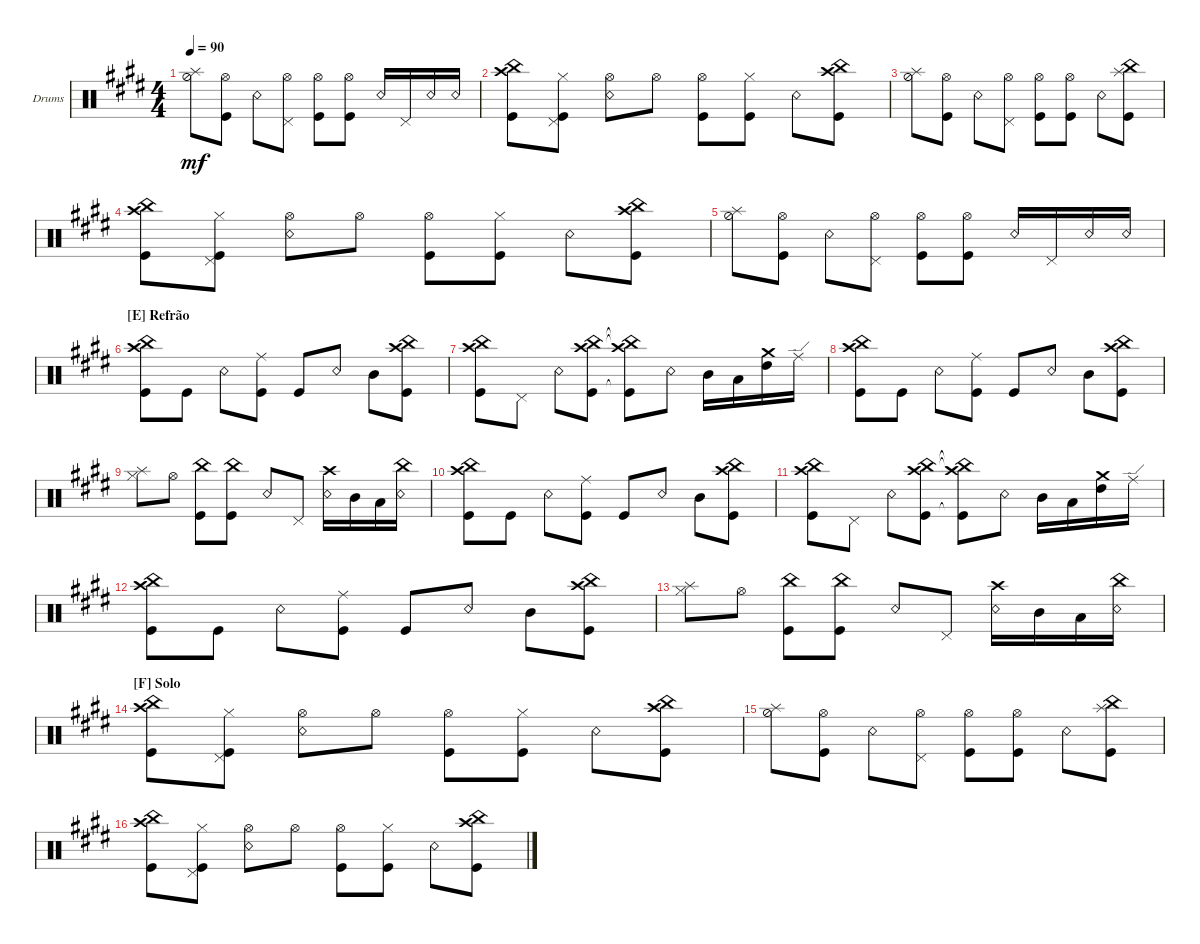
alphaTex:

\defaultSystemsLayout 4
\bracketExtendMode groupsimilarinstruments
\firstSystemTrackNameOrientation horizontal
\otherSystemsTrackNameOrientation horizontal
\track ("Drum" "Drums") {multiBarRest instrument percussion}
\staff {score}
\articulation defaults
\ts (4 4)
\tempo 90
\clef neutral
\ks e
("Hi-Hat (half)" "Splash (hit)").8{dy mf} ("Kick (hit)" "Hi-Hat (open)").8 "Snare (rim shot)".8 ("Pedal Hi-Hat (hit)" "Hi-Hat (open)").8 ("Kick (hit)" "Hi-Hat (open)").8 ("Kick (hit)" "Hi-Hat (open)").8 "Snare (rim shot)".16 "Pedal Hi-Hat (hit)".16 "Snare (rim shot)".16 "Snare (rim shot)".16 |
("Kick (hit)" "China (hit)" "Crash high (hit)").8 ("Kick (hit)" "Pedal Hi-Hat (hit)" "Hi-Hat (closed)").8 ("Snare (rim shot)" "Hi-Hat (open)").8 "Hi-Hat (open)".8 ("Kick (hit)" "Hi-Hat (open)").8 ("Kick (hit)" "Hi-Hat (closed)").8 "Snare (rim shot)".8 ("Crash high (hit)" "Kick (hit)" "China (hit)").8 |
("Hi-Hat (half)" "Splash (hit)").8 ("Kick (hit)" "Hi-Hat (open)").8 "Snare (rim shot)".8 ("Pedal Hi-Hat (hit)" "Hi-Hat (open)").8 ("Kick (hit)" "Hi-Hat (open)").8 ("Kick (hit)" "Hi-Hat (open)").8 "Snare (rim shot)".8 ("China (hit)" "Kick (hit)" "Splash (hit)").8 |
("Kick (hit)" "China (hit)" "Crash high (hit)").8 ("Kick (hit)" "Pedal Hi-Hat (hit)" "Hi-Hat (closed)").8 ("Snare (rim shot)" "Hi-Hat (open)").8 "Hi-Hat (open)".8 ("Kick (hit)" "Hi-Hat (open)").8 ("Kick (hit)" "Hi-Hat (closed)").8 "Snare (rim shot)".8 ("Crash high (hit)" "Kick (hit)" "China (hit)").8 |
("Hi-Hat (half)" "Splash (hit)").8 ("Kick (hit)" "Hi-Hat (open)").8 "Snare (rim shot)".8 ("Pedal Hi-Hat (hit)" "Hi-Hat (open)").8 ("Kick (hit)" "Hi-Hat (open)").8 ("Kick (hit)" "Hi-Hat (open)").8 "Snare (rim shot)".16 "Pedal Hi-Hat (hit)".16 "Snare (rim shot)".16 "Snare (rim shot)".16 |
\section ("E" "Refrão")
("Kick (hit)" "Crash high (hit)" "China (hit)").8 "Kick (hit)".8 "Snare (rim shot)".8 ("Kick (hit)" "Ride (middle)").8 "Kick (hit)".8 "Snare (rim shot)".8 "Mid Tom (hit)".8 ("Crash high (hit)" "China (hit)" "Kick (hit)").8 |
("Kick (hit)" "Crash high (hit)" "China (hit)").8 "Pedal Hi-Hat (hit)".8 "Snare (rim shot)".8 ("Kick (hit)" "Crash high (hit)" "China (hit)").8 ("Kick (hit)"{t} "Crash high (hit)"{t} "China (hit)"{t}).8 "Snare (rim shot)".8 "Mid Tom (hit)".16 "Low Tom (hit)".16 ("High Tom (hit)" "Crash medium (hit)").16 "Ride (edge)".16 |
("Kick (hit)" "Crash high (hit)" "China (hit)").8 "Kick (hit)".8 "Snare (rim shot)".8 ("Kick (hit)" "Ride (middle)").8 "Kick (hit)".8 "Snare (rim shot)".8 "Mid Tom (hit)".8 ("Crash high (hit)" "China (hit)" "Kick (hit)").8 |
("Hi-Hat (closed)" "Splash (hit)").8 "Hi-Hat (open)".8 ("Kick (hit)" "China (hit)").8 ("Kick (hit)" "China (hit)").8 "Snare (rim shot)".8 "Pedal Hi-Hat (hit)".8 ("Snare (rim shot)" "Crash high (hit)").16 "Mid Tom (hit)".16 "Low Tom (hit)".16 ("Snare (rim shot)" "China (hit)").16 |
("Kick (hit)" "Crash high (hit)" "China (hit)").8 "Kick (hit)".8 "Snare (rim shot)".8 ("Kick (hit)" "Ride (middle)").8 "Kick (hit)".8 "Snare (rim shot)".8 "Mid Tom (hit)".8 ("Crash high (hit)" "China (hit)" "Kick (hit)").8 |
("Kick (hit)" "Crash high (hit)" "China (hit)").8 "Pedal Hi-Hat (hit)".8 "Snare (rim shot)".8 ("Kick (hit)" "Crash high (hit)" "China (hit)").8 ("Kick (hit)"{t} "Crash high (hit)"{t} "China (hit)"{t}).8 "Snare (rim shot)".8 "Mid Tom (hit)".16 "Low Tom (hit)".16 ("High Tom (hit)" "Crash medium (hit)").16 "Ride (edge)".16 |
("Kick (hit)" "Crash high (hit)" "China (hit)").8 "Kick (hit)".8 "Snare (rim shot)".8 ("Kick (hit)" "Ride (middle)").8 "Kick (hit)".8 "Snare (rim shot)".8 "Mid Tom (hit)".8 ("Crash high (hit)" "China (hit)" "Kick (hit)").8 |
("Hi-Hat (closed)" "Splash (hit)").8 "Hi-Hat (open)".8 ("Kick (hit)" "China (hit)").8 ("Kick (hit)" "China (hit)").8 "Snare (rim shot)".8 "Pedal Hi-Hat (hit)".8 ("Snare (rim shot)" "Crash high (hit)").16 "Mid Tom (hit)".16 "Low Tom (hit)".16 ("Snare (rim shot)" "China (hit)").16 |
\section ("F" "Solo")
("Kick (hit)" "China (hit)" "Crash high (hit)").8 ("Kick (hit)" "Pedal Hi-Hat (hit)" "Hi-Hat (closed)").8 ("Snare (rim shot)" "Hi-Hat (open)").8 "Hi-Hat (open)".8 ("Kick (hit)" "Hi-Hat (open)").8 ("Kick (hit)" "Hi-Hat (closed)").8 "Snare (rim shot)".8 ("Crash high (hit)" "Kick (hit)" "China (hit)").8 |
("Hi-Hat (half)" "Splash (hit)").8 ("Kick (hit)" "Hi-Hat (open)").8 "Snare (rim shot)".8 ("Pedal Hi-Hat (hit)" "Hi-Hat (open)").8 ("Kick (hit)" "Hi-Hat (open)").8 ("Kick (hit)" "Hi-Hat (open)").8 "Snare (rim shot)".8 ("China (hit)" "Kick (hit)" "Splash (hit)").8 |
("Kick (hit)" "China (hit)" "Crash high (hit)").8 ("Kick (hit)" "Pedal Hi-Hat (hit)" "Hi-Hat (closed)").8 ("Snare (rim shot)" "Hi-Hat (open)").8 "Hi-Hat (open)".8 ("Kick (hit)" "Hi-Hat (open)").8 ("Kick (hit)" "Hi-Hat (closed)").8 "Snare (rim shot)".8 ("Crash high (hit)" "Kick (hit)" "China (hit)").8
